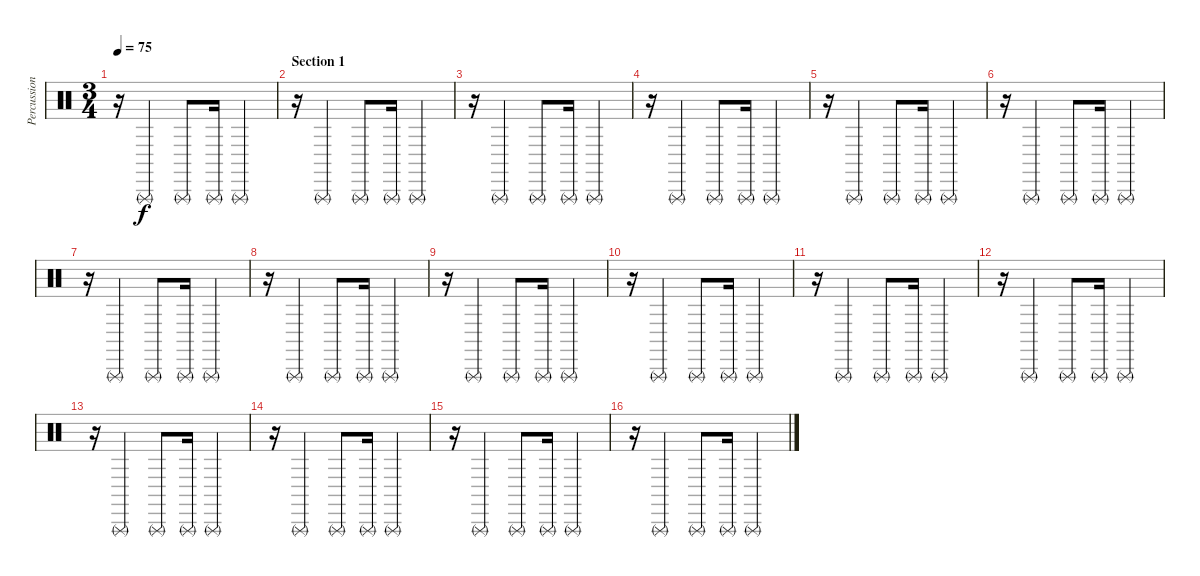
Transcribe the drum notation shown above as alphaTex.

\track ("Percussions" "Percussion") {instrument percussion}
\staff {score}
\articulation defaults
\ts (3 4)
\tempo 75
\clef neutral
\ks c
r.16{dy f} "Triangle (rnute)".4 "Triangle (rnute)".8 "Triangle (rnute)".16 "Triangle (rnute)".4 |
\section ("" "Section 1")
r.16 "Triangle (rnute)".4 "Triangle (rnute)".8 "Triangle (rnute)".16 "Triangle (rnute)".4 |
r.16 "Triangle (rnute)".4 "Triangle (rnute)".8 "Triangle (rnute)".16 "Triangle (rnute)".4 |
r.16 "Triangle (rnute)".4 "Triangle (rnute)".8 "Triangle (rnute)".16 "Triangle (rnute)".4 |
r.16 "Triangle (rnute)".4 "Triangle (rnute)".8 "Triangle (rnute)".16 "Triangle (rnute)".4 |
r.16 "Triangle (rnute)".4 "Triangle (rnute)".8 "Triangle (rnute)".16 "Triangle (rnute)".4 |
r.16 "Triangle (rnute)".4 "Triangle (rnute)".8 "Triangle (rnute)".16 "Triangle (rnute)".4 |
r.16 "Triangle (rnute)".4 "Triangle (rnute)".8 "Triangle (rnute)".16 "Triangle (rnute)".4 |
r.16 "Triangle (rnute)".4 "Triangle (rnute)".8 "Triangle (rnute)".16 "Triangle (rnute)".4 |
r.16 "Triangle (rnute)".4 "Triangle (rnute)".8 "Triangle (rnute)".16 "Triangle (rnute)".4 |
r.16 "Triangle (rnute)".4 "Triangle (rnute)".8 "Triangle (rnute)".16 "Triangle (rnute)".4 |
r.16 "Triangle (rnute)".4 "Triangle (rnute)".8 "Triangle (rnute)".16 "Triangle (rnute)".4 |
r.16 "Triangle (rnute)".4 "Triangle (rnute)".8 "Triangle (rnute)".16 "Triangle (rnute)".4 |
r.16 "Triangle (rnute)".4 "Triangle (rnute)".8 "Triangle (rnute)".16 "Triangle (rnute)".4 |
r.16 "Triangle (rnute)".4 "Triangle (rnute)".8 "Triangle (rnute)".16 "Triangle (rnute)".4 |
r.16 "Triangle (rnute)".4 "Triangle (rnute)".8 "Triangle (rnute)".16 "Triangle (rnute)".4
